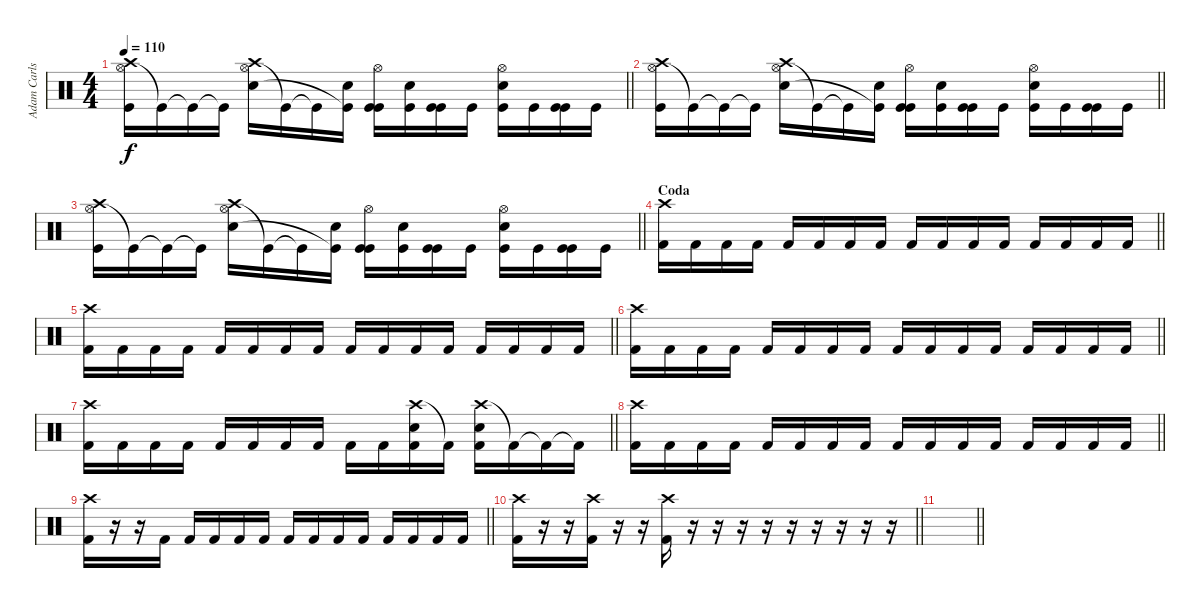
\track ("Adam Carlson(Natural Drums)" "Adam Carls") {instrument percussion}
\staff {score}
\articulation defaults
\ts (4 4)
\tempo 110
\clef neutral
\barLineRight lightlight
\ks c
("Hi-Hat (open)" "Kick (hit)" "Crash high (hit)").16{dy f} "Kick (hit)"{t}.16 "Kick (hit)"{t}.16 "Kick (hit)"{t}.16 ("Hi-Hat (open)" "Electric Snare (hit)" "Crash high (hit)").16 "Kick (hit)"{t}.16 "Kick (hit)"{t}.16 ("Electric Snare (hit)" "Kick (hit)"{t}).16 ("Hi-Hat (open)" "Kick (hit)" "Kick (hit)").16 ("Electric Snare (hit)" "Kick (hit)").16 ("Kick (hit)" "Kick (hit)").16 "Kick (hit)".16 ("Hi-Hat (open)" "Electric Snare (hit)" "Kick (hit)").16 "Kick (hit)".16 ("Kick (hit)" "Kick (hit)").16 "Kick (hit)".16 |
\barLineRight lightlight
("Hi-Hat (open)" "Kick (hit)" "Crash high (hit)").16 "Kick (hit)"{t}.16 "Kick (hit)"{t}.16 "Kick (hit)"{t}.16 ("Hi-Hat (open)" "Electric Snare (hit)" "Crash high (hit)").16 "Kick (hit)"{t}.16 "Kick (hit)"{t}.16 ("Electric Snare (hit)" "Kick (hit)"{t}).16 ("Hi-Hat (open)" "Kick (hit)" "Kick (hit)").16 ("Electric Snare (hit)" "Kick (hit)").16 ("Kick (hit)" "Kick (hit)").16 "Kick (hit)".16 ("Hi-Hat (open)" "Electric Snare (hit)" "Kick (hit)").16 "Kick (hit)".16 ("Kick (hit)" "Kick (hit)").16 "Kick (hit)".16 |
\barLineRight lightlight
("Hi-Hat (open)" "Kick (hit)" "Crash high (hit)").16 "Kick (hit)"{t}.16 "Kick (hit)"{t}.16 "Kick (hit)"{t}.16 ("Hi-Hat (open)" "Electric Snare (hit)" "Crash high (hit)").16 "Kick (hit)"{t}.16 "Kick (hit)"{t}.16 ("Electric Snare (hit)" "Kick (hit)"{t}).16 ("Hi-Hat (open)" "Kick (hit)" "Kick (hit)").16 ("Electric Snare (hit)" "Kick (hit)").16 ("Kick (hit)" "Kick (hit)").16 "Kick (hit)".16 ("Hi-Hat (open)" "Electric Snare (hit)" "Kick (hit)").16 "Kick (hit)".16 ("Kick (hit)" "Kick (hit)").16 "Kick (hit)".16 |
\section ("" "Coda")
\barLineRight lightlight
("Crash high (hit)" "Kick (hit) 2").16 "Kick (hit) 2".16 "Kick (hit) 2".16 "Kick (hit) 2".16 "Kick (hit) 2".16 "Kick (hit) 2".16 "Kick (hit) 2".16 "Kick (hit) 2".16 "Kick (hit) 2".16 "Kick (hit) 2".16 "Kick (hit) 2".16 "Kick (hit) 2".16 "Kick (hit) 2".16 "Kick (hit) 2".16 "Kick (hit) 2".16 "Kick (hit) 2".16 |
\barLineRight lightlight
("Crash high (hit)" "Kick (hit) 2").16 "Kick (hit) 2".16 "Kick (hit) 2".16 "Kick (hit) 2".16 "Kick (hit) 2".16 "Kick (hit) 2".16 "Kick (hit) 2".16 "Kick (hit) 2".16 "Kick (hit) 2".16 "Kick (hit) 2".16 "Kick (hit) 2".16 "Kick (hit) 2".16 "Kick (hit) 2".16 "Kick (hit) 2".16 "Kick (hit) 2".16 "Kick (hit) 2".16 |
\barLineRight lightlight
("Crash high (hit)" "Kick (hit) 2").16 "Kick (hit) 2".16 "Kick (hit) 2".16 "Kick (hit) 2".16 "Kick (hit) 2".16 "Kick (hit) 2".16 "Kick (hit) 2".16 "Kick (hit) 2".16 "Kick (hit) 2".16 "Kick (hit) 2".16 "Kick (hit) 2".16 "Kick (hit) 2".16 "Kick (hit) 2".16 "Kick (hit) 2".16 "Kick (hit) 2".16 "Kick (hit) 2".16 |
\barLineRight lightlight
("Crash high (hit)" "Kick (hit) 2").16 "Kick (hit) 2".16 "Kick (hit) 2".16 "Kick (hit) 2".16 "Kick (hit) 2".16 "Kick (hit) 2".16 "Kick (hit) 2".16 "Kick (hit) 2".16 "Kick (hit) 2".16 "Kick (hit) 2".16 ("Crash high (hit)" "Electric Snare (hit)" "Kick (hit) 2").16 "Kick (hit) 2"{t}.16 ("Crash high (hit)" "Electric Snare (hit)" "Kick (hit) 2").16 "Kick (hit) 2"{t}.16 "Kick (hit) 2"{t}.16 "Kick (hit) 2"{t}.16 |
\barLineRight lightlight
("Crash high (hit)" "Kick (hit) 2").16 "Kick (hit) 2".16 "Kick (hit) 2".16 "Kick (hit) 2".16 "Kick (hit) 2".16 "Kick (hit) 2".16 "Kick (hit) 2".16 "Kick (hit) 2".16 "Kick (hit) 2".16 "Kick (hit) 2".16 "Kick (hit) 2".16 "Kick (hit) 2".16 "Kick (hit) 2".16 "Kick (hit) 2".16 "Kick (hit) 2".16 "Kick (hit) 2".16 |
\barLineRight lightlight
("Crash high (hit)" "Kick (hit) 2").16 r.16 r.16 "Kick (hit) 2".16 "Kick (hit) 2".16 "Kick (hit) 2".16 "Kick (hit) 2".16 "Kick (hit) 2".16 "Kick (hit) 2".16 "Kick (hit) 2".16 "Kick (hit) 2".16 "Kick (hit) 2".16 "Kick (hit) 2".16 "Kick (hit) 2".16 "Kick (hit) 2".16 "Kick (hit) 2".16 |
\barLineRight lightlight
("Crash high (hit)" "Kick (hit) 2").16 r.16 r.16 ("Crash high (hit)" "Kick (hit) 2").16 r.16 r.16 ("Crash high (hit)" "Kick (hit) 2").16 r.16 r.16 r.16 r.16 r.16 r.16 r.16 r.16 r.16 |
\barLineRight lightlight
